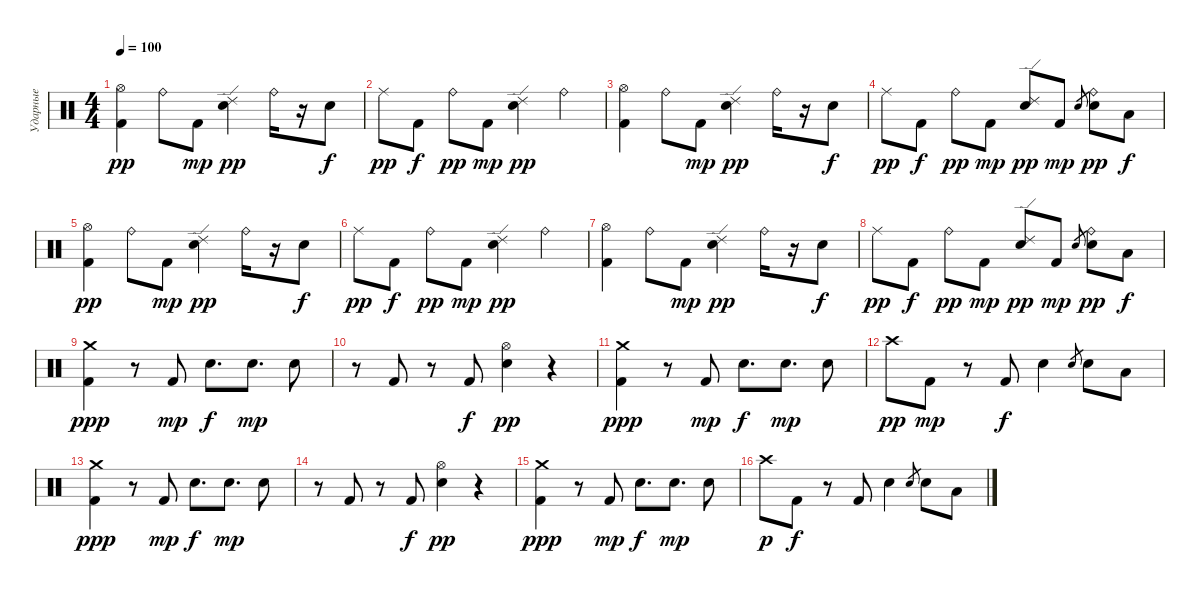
\track ("Ударные" "Ударные") {instrument percussion}
\staff {score}
\articulation defaults
\ts (4 4)
\tempo 100
\clef neutral
\ks c
("Hi-Hat (open)" "Kick (hit) 2").4{dy pp} "Ride (bell)".8 "Kick (hit) 2".8{dy mp} ("Ride (edge) 2" "Electric Snare (hit)").4{dy pp} "Ride (bell)".16 r.16 "Electric Snare (hit)".8{dy f} |
"Ride (middle)".8{dy pp} "Kick (hit) 2".8{dy f} "Ride (bell)".8{dy pp} "Kick (hit) 2".8{dy mp} ("Ride (edge) 2" "Electric Snare (hit)").4{dy pp} "Ride (bell)".4 |
("Hi-Hat (open)" "Kick (hit) 2").4 "Ride (bell)".8 "Kick (hit) 2".8{dy mp} ("Ride (edge) 2" "Electric Snare (hit)").4{dy pp} "Ride (bell)".16 r.16 "Electric Snare (hit)".8{dy f} |
"Ride (middle)".8{dy pp} "Kick (hit) 2".8{dy f} "Ride (bell)".8{dy pp} "Kick (hit) 2".8{dy mp} ("Ride (edge) 2" "Electric Snare (hit)").8{dy pp} "Kick (hit) 2".8{dy mp} "Electric Snare (hit)".8{gr} ("Ride (bell)" "Electric Snare (hit)").8{dy pp} "Low Floor Tom (hit)".8{dy f} |
("Hi-Hat (open)" "Kick (hit) 2").4{dy pp} "Ride (bell)".8 "Kick (hit) 2".8{dy mp} ("Ride (edge) 2" "Electric Snare (hit)").4{dy pp} "Ride (bell)".16 r.16 "Electric Snare (hit)".8{dy f} |
"Ride (middle)".8{dy pp} "Kick (hit) 2".8{dy f} "Ride (bell)".8{dy pp} "Kick (hit) 2".8{dy mp} ("Ride (edge) 2" "Electric Snare (hit)").4{dy pp} "Ride (bell)".4 |
("Hi-Hat (open)" "Kick (hit) 2").4 "Ride (bell)".8 "Kick (hit) 2".8{dy mp} ("Ride (edge) 2" "Electric Snare (hit)").4{dy pp} "Ride (bell)".16 r.16 "Electric Snare (hit)".8{dy f} |
"Ride (middle)".8{dy pp} "Kick (hit) 2".8{dy f} "Ride (bell)".8{dy pp} "Kick (hit) 2".8{dy mp} ("Ride (edge) 2" "Electric Snare (hit)").8{dy pp} "Kick (hit) 2".8{dy mp} "Electric Snare (hit)".8{gr} ("Ride (bell)" "Electric Snare (hit)").8{dy pp} "Low Floor Tom (hit)".8{dy f} |
("Crash medium (hit)" "Kick (hit) 2").4{dy ppp} r.8 "Kick (hit) 2".8{dy mp} "Electric Snare (hit)".8{d dy f} "Electric Snare (hit)".8{d dy mp} "Electric Snare (hit)".8 |
r.8 "Kick (hit) 2".8 r.8 "Kick (hit) 2".8{dy f} ("Hi-Hat (open)" "Electric Snare (hit)").4{dy pp} r.4 |
("Crash medium (hit)" "Kick (hit) 2").4{dy ppp} r.8 "Kick (hit) 2".8{dy mp} "Electric Snare (hit)".8{d dy f} "Electric Snare (hit)".8{d dy mp} "Electric Snare (hit)".8 |
"Crash high (hit)".8{dy pp} "Kick (hit) 2".8{dy mp} r.8 "Kick (hit) 2".8{dy f} "Electric Snare (hit)".4 "Electric Snare (hit)".8{gr} "Electric Snare (hit)".8 "Low Floor Tom (hit)".8 |
("Crash medium (hit)" "Kick (hit) 2").4{dy ppp} r.8 "Kick (hit) 2".8{dy mp} "Electric Snare (hit)".8{d dy f} "Electric Snare (hit)".8{d dy mp} "Electric Snare (hit)".8 |
r.8 "Kick (hit) 2".8 r.8 "Kick (hit) 2".8{dy f} ("Hi-Hat (open)" "Electric Snare (hit)").4{dy pp} r.4 |
("Crash medium (hit)" "Kick (hit) 2").4{dy ppp} r.8 "Kick (hit) 2".8{dy mp} "Electric Snare (hit)".8{d dy f} "Electric Snare (hit)".8{d dy mp} "Electric Snare (hit)".8 |
"Crash high (hit)".8{dy p} "Kick (hit) 2".8{dy f} r.8 "Kick (hit) 2".8 "Electric Snare (hit)".4 "Electric Snare (hit)".8{gr} "Electric Snare (hit)".8 "Low Floor Tom (hit)".8
